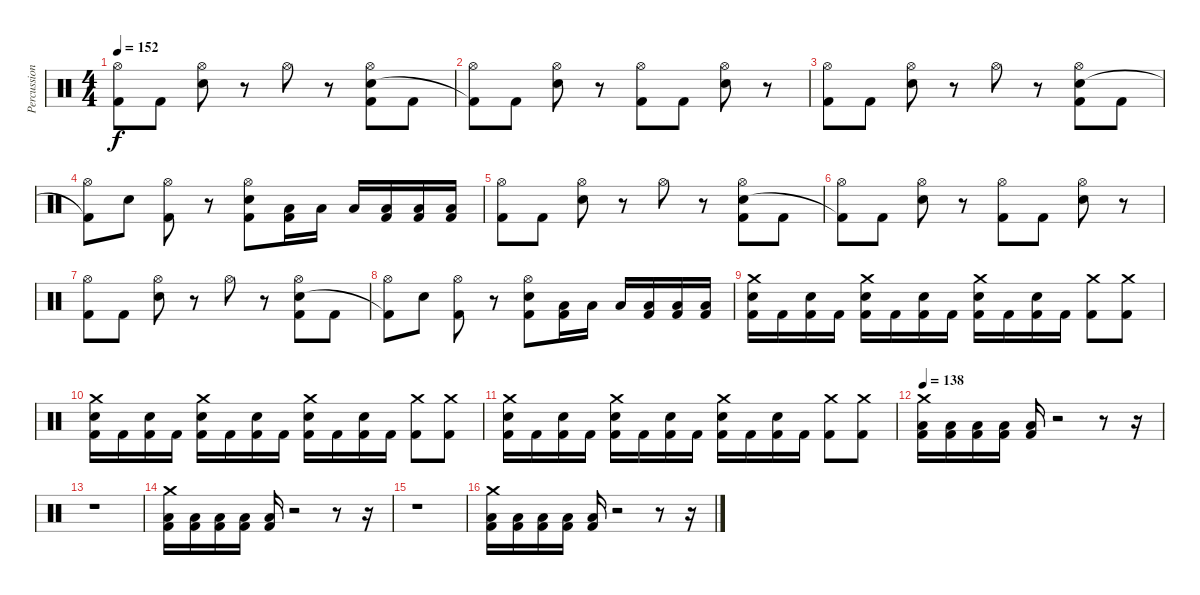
\track ("Percussion" "Percussion") {instrument percussion}
\staff {score}
\articulation defaults
\ts (4 4)
\tempo 152
\clef neutral
\ks c
("Hi-Hat (open)" "Kick (hit) 2").8{dy f} "Kick (hit) 2".8 ("Hi-Hat (open)" "Electric Snare (hit)").8 r.8 "Hi-Hat (open)".8 r.8 ("Hi-Hat (open)" "Electric Snare (hit)" "Kick (hit) 2").8 "Kick (hit) 2".8 |
("Hi-Hat (open)" "Kick (hit) 2"{t}).8 "Kick (hit) 2".8 ("Hi-Hat (open)" "Electric Snare (hit)").8 r.8 ("Hi-Hat (open)" "Kick (hit) 2").8 "Kick (hit) 2".8 ("Hi-Hat (open)" "Electric Snare (hit)").8 r.8 |
("Hi-Hat (open)" "Kick (hit) 2").8 "Kick (hit) 2".8 ("Hi-Hat (open)" "Electric Snare (hit)").8 r.8 "Hi-Hat (open)".8 r.8 ("Hi-Hat (open)" "Electric Snare (hit)" "Kick (hit) 2").8 "Kick (hit) 2".8 |
("Hi-Hat (open)" "Kick (hit) 2"{t}).8 "Electric Snare (hit)".8 ("Hi-Hat (open)" "Kick (hit) 2").8 r.8 ("Hi-Hat (open)" "Electric Snare (hit)" "Kick (hit) 2").8 ("Low Tom (hit)" "Kick (hit) 2").16 "Low Tom (hit)".16 "Low Floor Tom (hit)".16 ("Low Floor Tom (hit)" "Kick (hit) 2").16 ("Low Floor Tom (hit)" "Kick (hit) 2").16 ("Low Floor Tom (hit)" "Kick (hit) 2").16 |
("Hi-Hat (open)" "Kick (hit) 2").8 "Kick (hit) 2".8 ("Hi-Hat (open)" "Electric Snare (hit)").8 r.8 "Hi-Hat (open)".8 r.8 ("Hi-Hat (open)" "Electric Snare (hit)" "Kick (hit) 2").8 "Kick (hit) 2".8 |
("Hi-Hat (open)" "Kick (hit) 2"{t}).8 "Kick (hit) 2".8 ("Hi-Hat (open)" "Electric Snare (hit)").8 r.8 ("Hi-Hat (open)" "Kick (hit) 2").8 "Kick (hit) 2".8 ("Hi-Hat (open)" "Electric Snare (hit)").8 r.8 |
("Hi-Hat (open)" "Kick (hit) 2").8 "Kick (hit) 2".8 ("Hi-Hat (open)" "Electric Snare (hit)").8 r.8 "Hi-Hat (open)".8 r.8 ("Hi-Hat (open)" "Electric Snare (hit)" "Kick (hit) 2").8 "Kick (hit) 2".8 |
("Hi-Hat (open)" "Kick (hit) 2"{t}).8 "Electric Snare (hit)".8 ("Hi-Hat (open)" "Kick (hit) 2").8 r.8 ("Hi-Hat (open)" "Electric Snare (hit)" "Kick (hit) 2").8 ("Low Tom (hit)" "Kick (hit) 2").16 "Low Tom (hit)".16 "Low Floor Tom (hit)".16 ("Low Floor Tom (hit)" "Kick (hit) 2").16 ("Low Floor Tom (hit)" "Kick (hit) 2").16 ("Low Floor Tom (hit)" "Kick (hit) 2").16 |
("Crash medium (hit)" "Electric Snare (hit)" "Kick (hit) 2").16 "Kick (hit) 2".16 ("Electric Snare (hit)" "Kick (hit) 2").16 "Kick (hit) 2".16 ("Crash medium (hit)" "Electric Snare (hit)" "Kick (hit) 2").16 "Kick (hit) 2".16 ("Electric Snare (hit)" "Kick (hit) 2").16 "Kick (hit) 2".16 ("Crash medium (hit)" "Electric Snare (hit)" "Kick (hit) 2").16 "Kick (hit) 2".16 ("Electric Snare (hit)" "Kick (hit) 2").16 "Kick (hit) 2".16 ("Crash medium (hit)" "Kick (hit) 2").8 ("Crash medium (hit)" "Kick (hit) 2").8 |
("Crash medium (hit)" "Electric Snare (hit)" "Kick (hit) 2").16 "Kick (hit) 2".16 ("Electric Snare (hit)" "Kick (hit) 2").16 "Kick (hit) 2".16 ("Crash medium (hit)" "Electric Snare (hit)" "Kick (hit) 2").16 "Kick (hit) 2".16 ("Electric Snare (hit)" "Kick (hit) 2").16 "Kick (hit) 2".16 ("Crash medium (hit)" "Electric Snare (hit)" "Kick (hit) 2").16 "Kick (hit) 2".16 ("Electric Snare (hit)" "Kick (hit) 2").16 "Kick (hit) 2".16 ("Crash medium (hit)" "Kick (hit) 2").8 ("Crash medium (hit)" "Kick (hit) 2").8 |
("Crash medium (hit)" "Electric Snare (hit)" "Kick (hit) 2").16 "Kick (hit) 2".16 ("Electric Snare (hit)" "Kick (hit) 2").16 "Kick (hit) 2".16 ("Crash medium (hit)" "Electric Snare (hit)" "Kick (hit) 2").16 "Kick (hit) 2".16 ("Electric Snare (hit)" "Kick (hit) 2").16 "Kick (hit) 2".16 ("Crash medium (hit)" "Electric Snare (hit)" "Kick (hit) 2").16 "Kick (hit) 2".16 ("Electric Snare (hit)" "Kick (hit) 2").16 "Kick (hit) 2".16 ("Crash medium (hit)" "Kick (hit) 2").8 ("Crash medium (hit)" "Kick (hit) 2").8 |
\tempo 138
("Crash medium (hit)" "Low Tom (hit)" "Kick (hit) 2").16 ("Low Tom (hit)" "Kick (hit) 2").16 ("Low Tom (hit)" "Kick (hit) 2").16 ("Low Tom (hit)" "Kick (hit) 2").16 ("Low Tom (hit)" "Kick (hit) 2").16 r.2 r.8 r.16 |
r.1 |
("Crash medium (hit)" "Low Tom (hit)" "Kick (hit) 2").16 ("Low Tom (hit)" "Kick (hit) 2").16 ("Low Tom (hit)" "Kick (hit) 2").16 ("Low Tom (hit)" "Kick (hit) 2").16 ("Low Tom (hit)" "Kick (hit) 2").16 r.2 r.8 r.16 |
r.1 |
("Crash medium (hit)" "Low Tom (hit)" "Kick (hit) 2").16 ("Low Tom (hit)" "Kick (hit) 2").16 ("Low Tom (hit)" "Kick (hit) 2").16 ("Low Tom (hit)" "Kick (hit) 2").16 ("Low Tom (hit)" "Kick (hit) 2").16 r.2 r.8 r.16
